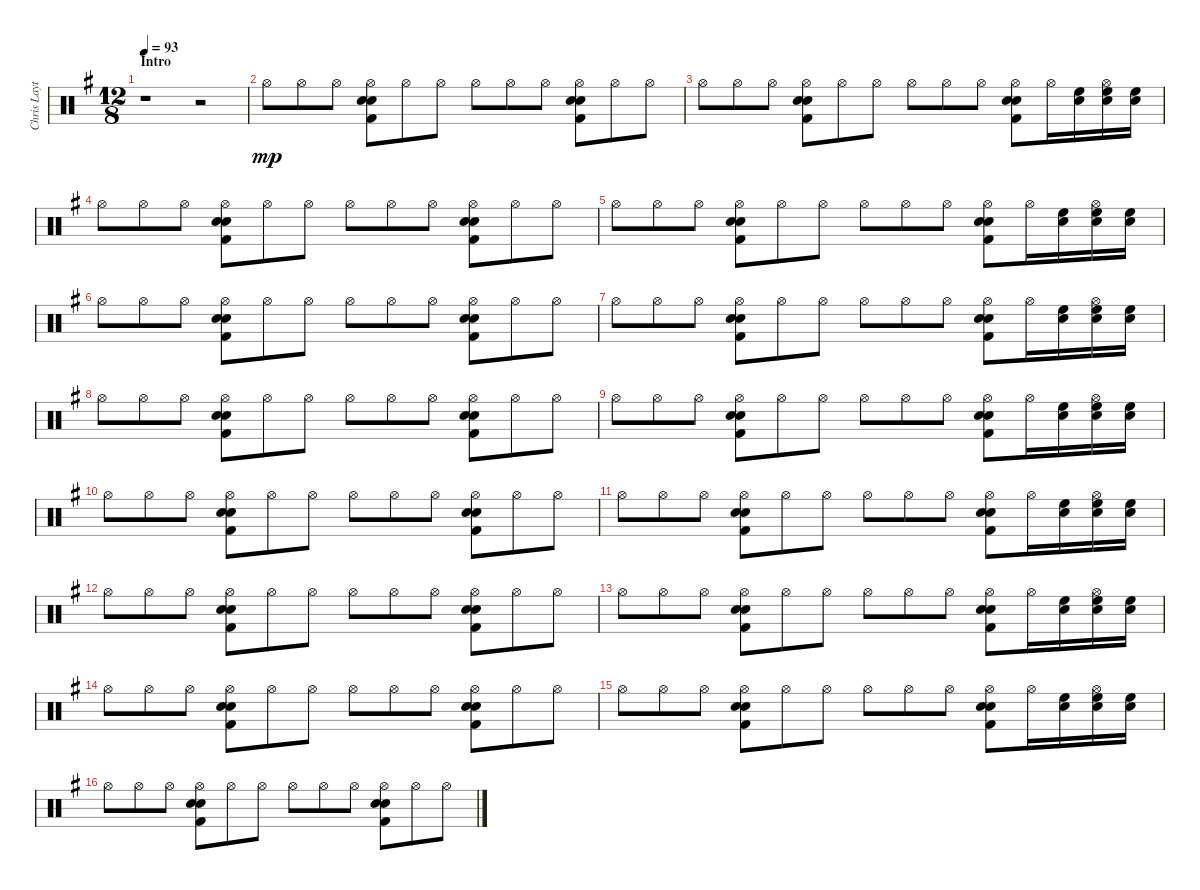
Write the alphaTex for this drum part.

\track ("Chris Layton" "Chris Layt") {instrument percussion}
\staff {score}
\articulation defaults
\ts (12 8)
\section ("" "Intro")
\tempo 93
\clef neutral
\ks g
r.1{dy mp} r.2 |
"Hi-Hat (open)".8 "Hi-Hat (open)".8 "Hi-Hat (open)".8 ("Electric Snare (hit)" "Electric Snare (hit)" "Kick (hit) 2" "Hi-Hat (open)").8 "Hi-Hat (open)".8 "Hi-Hat (open)".8 "Hi-Hat (open)".8 "Hi-Hat (open)".8 "Hi-Hat (open)".8 ("Kick (hit) 2" "Electric Snare (hit)" "Electric Snare (hit)" "Hi-Hat (open)").8 "Hi-Hat (open)".8 "Hi-Hat (open)".8 |
"Hi-Hat (open)".8 "Hi-Hat (open)".8 "Hi-Hat (open)".8 ("Electric Snare (hit)" "Electric Snare (hit)" "Kick (hit) 2" "Hi-Hat (open)").8 "Hi-Hat (open)".8 "Hi-Hat (open)".8 "Hi-Hat (open)".8 "Hi-Hat (open)".8 "Hi-Hat (open)".8 ("Kick (hit) 2" "Electric Snare (hit)" "Electric Snare (hit)" "Hi-Hat (open)").8 "Hi-Hat (open)".16 ("Electric Snare (hit)" "High Floor Tom (hit)").16 ("Electric Snare (hit)" "High Floor Tom (hit)" "Hi-Hat (open)").16 ("Electric Snare (hit)" "High Floor Tom (hit)").16 |
"Hi-Hat (open)".8 "Hi-Hat (open)".8 "Hi-Hat (open)".8 ("Electric Snare (hit)" "Electric Snare (hit)" "Kick (hit) 2" "Hi-Hat (open)").8 "Hi-Hat (open)".8 "Hi-Hat (open)".8 "Hi-Hat (open)".8 "Hi-Hat (open)".8 "Hi-Hat (open)".8 ("Kick (hit) 2" "Electric Snare (hit)" "Electric Snare (hit)" "Hi-Hat (open)").8 "Hi-Hat (open)".8 "Hi-Hat (open)".8 |
"Hi-Hat (open)".8 "Hi-Hat (open)".8 "Hi-Hat (open)".8 ("Electric Snare (hit)" "Electric Snare (hit)" "Kick (hit) 2" "Hi-Hat (open)").8 "Hi-Hat (open)".8 "Hi-Hat (open)".8 "Hi-Hat (open)".8 "Hi-Hat (open)".8 "Hi-Hat (open)".8 ("Kick (hit) 2" "Electric Snare (hit)" "Electric Snare (hit)" "Hi-Hat (open)").8 "Hi-Hat (open)".16 ("Electric Snare (hit)" "High Floor Tom (hit)").16 ("Electric Snare (hit)" "High Floor Tom (hit)" "Hi-Hat (open)").16 ("Electric Snare (hit)" "High Floor Tom (hit)").16 |
"Hi-Hat (open)".8 "Hi-Hat (open)".8 "Hi-Hat (open)".8 ("Electric Snare (hit)" "Electric Snare (hit)" "Kick (hit) 2" "Hi-Hat (open)").8 "Hi-Hat (open)".8 "Hi-Hat (open)".8 "Hi-Hat (open)".8 "Hi-Hat (open)".8 "Hi-Hat (open)".8 ("Kick (hit) 2" "Electric Snare (hit)" "Electric Snare (hit)" "Hi-Hat (open)").8 "Hi-Hat (open)".8 "Hi-Hat (open)".8 |
"Hi-Hat (open)".8 "Hi-Hat (open)".8 "Hi-Hat (open)".8 ("Electric Snare (hit)" "Electric Snare (hit)" "Kick (hit) 2" "Hi-Hat (open)").8 "Hi-Hat (open)".8 "Hi-Hat (open)".8 "Hi-Hat (open)".8 "Hi-Hat (open)".8 "Hi-Hat (open)".8 ("Kick (hit) 2" "Electric Snare (hit)" "Electric Snare (hit)" "Hi-Hat (open)").8 "Hi-Hat (open)".16 ("Electric Snare (hit)" "High Floor Tom (hit)").16 ("Electric Snare (hit)" "High Floor Tom (hit)" "Hi-Hat (open)").16 ("Electric Snare (hit)" "High Floor Tom (hit)").16 |
"Hi-Hat (open)".8 "Hi-Hat (open)".8 "Hi-Hat (open)".8 ("Electric Snare (hit)" "Electric Snare (hit)" "Kick (hit) 2" "Hi-Hat (open)").8 "Hi-Hat (open)".8 "Hi-Hat (open)".8 "Hi-Hat (open)".8 "Hi-Hat (open)".8 "Hi-Hat (open)".8 ("Kick (hit) 2" "Electric Snare (hit)" "Electric Snare (hit)" "Hi-Hat (open)").8 "Hi-Hat (open)".8 "Hi-Hat (open)".8 |
"Hi-Hat (open)".8 "Hi-Hat (open)".8 "Hi-Hat (open)".8 ("Electric Snare (hit)" "Electric Snare (hit)" "Kick (hit) 2" "Hi-Hat (open)").8 "Hi-Hat (open)".8 "Hi-Hat (open)".8 "Hi-Hat (open)".8 "Hi-Hat (open)".8 "Hi-Hat (open)".8 ("Kick (hit) 2" "Electric Snare (hit)" "Electric Snare (hit)" "Hi-Hat (open)").8 "Hi-Hat (open)".16 ("Electric Snare (hit)" "High Floor Tom (hit)").16 ("Electric Snare (hit)" "High Floor Tom (hit)" "Hi-Hat (open)").16 ("Electric Snare (hit)" "High Floor Tom (hit)").16 |
"Hi-Hat (open)".8 "Hi-Hat (open)".8 "Hi-Hat (open)".8 ("Electric Snare (hit)" "Electric Snare (hit)" "Kick (hit) 2" "Hi-Hat (open)").8 "Hi-Hat (open)".8 "Hi-Hat (open)".8 "Hi-Hat (open)".8 "Hi-Hat (open)".8 "Hi-Hat (open)".8 ("Kick (hit) 2" "Electric Snare (hit)" "Electric Snare (hit)" "Hi-Hat (open)").8 "Hi-Hat (open)".8 "Hi-Hat (open)".8 |
"Hi-Hat (open)".8 "Hi-Hat (open)".8 "Hi-Hat (open)".8 ("Electric Snare (hit)" "Electric Snare (hit)" "Kick (hit) 2" "Hi-Hat (open)").8 "Hi-Hat (open)".8 "Hi-Hat (open)".8 "Hi-Hat (open)".8 "Hi-Hat (open)".8 "Hi-Hat (open)".8 ("Kick (hit) 2" "Electric Snare (hit)" "Electric Snare (hit)" "Hi-Hat (open)").8 "Hi-Hat (open)".16 ("Electric Snare (hit)" "High Floor Tom (hit)").16 ("Electric Snare (hit)" "High Floor Tom (hit)" "Hi-Hat (open)").16 ("Electric Snare (hit)" "High Floor Tom (hit)").16 |
"Hi-Hat (open)".8 "Hi-Hat (open)".8 "Hi-Hat (open)".8 ("Electric Snare (hit)" "Electric Snare (hit)" "Kick (hit) 2" "Hi-Hat (open)").8 "Hi-Hat (open)".8 "Hi-Hat (open)".8 "Hi-Hat (open)".8 "Hi-Hat (open)".8 "Hi-Hat (open)".8 ("Kick (hit) 2" "Electric Snare (hit)" "Electric Snare (hit)" "Hi-Hat (open)").8 "Hi-Hat (open)".8 "Hi-Hat (open)".8 |
"Hi-Hat (open)".8 "Hi-Hat (open)".8 "Hi-Hat (open)".8 ("Electric Snare (hit)" "Electric Snare (hit)" "Kick (hit) 2" "Hi-Hat (open)").8 "Hi-Hat (open)".8 "Hi-Hat (open)".8 "Hi-Hat (open)".8 "Hi-Hat (open)".8 "Hi-Hat (open)".8 ("Kick (hit) 2" "Electric Snare (hit)" "Electric Snare (hit)" "Hi-Hat (open)").8 "Hi-Hat (open)".16 ("Electric Snare (hit)" "High Floor Tom (hit)").16 ("Electric Snare (hit)" "High Floor Tom (hit)" "Hi-Hat (open)").16 ("Electric Snare (hit)" "High Floor Tom (hit)").16 |
"Hi-Hat (open)".8 "Hi-Hat (open)".8 "Hi-Hat (open)".8 ("Electric Snare (hit)" "Electric Snare (hit)" "Kick (hit) 2" "Hi-Hat (open)").8 "Hi-Hat (open)".8 "Hi-Hat (open)".8 "Hi-Hat (open)".8 "Hi-Hat (open)".8 "Hi-Hat (open)".8 ("Kick (hit) 2" "Electric Snare (hit)" "Electric Snare (hit)" "Hi-Hat (open)").8 "Hi-Hat (open)".8 "Hi-Hat (open)".8 |
"Hi-Hat (open)".8 "Hi-Hat (open)".8 "Hi-Hat (open)".8 ("Electric Snare (hit)" "Electric Snare (hit)" "Kick (hit) 2" "Hi-Hat (open)").8 "Hi-Hat (open)".8 "Hi-Hat (open)".8 "Hi-Hat (open)".8 "Hi-Hat (open)".8 "Hi-Hat (open)".8 ("Kick (hit) 2" "Electric Snare (hit)" "Electric Snare (hit)" "Hi-Hat (open)").8 "Hi-Hat (open)".16 ("Electric Snare (hit)" "High Floor Tom (hit)").16 ("Electric Snare (hit)" "High Floor Tom (hit)" "Hi-Hat (open)").16 ("Electric Snare (hit)" "High Floor Tom (hit)").16 |
"Hi-Hat (open)".8 "Hi-Hat (open)".8 "Hi-Hat (open)".8 ("Electric Snare (hit)" "Electric Snare (hit)" "Kick (hit) 2" "Hi-Hat (open)").8 "Hi-Hat (open)".8 "Hi-Hat (open)".8 "Hi-Hat (open)".8 "Hi-Hat (open)".8 "Hi-Hat (open)".8 ("Kick (hit) 2" "Electric Snare (hit)" "Electric Snare (hit)" "Hi-Hat (open)").8 "Hi-Hat (open)".8 "Hi-Hat (open)".8
